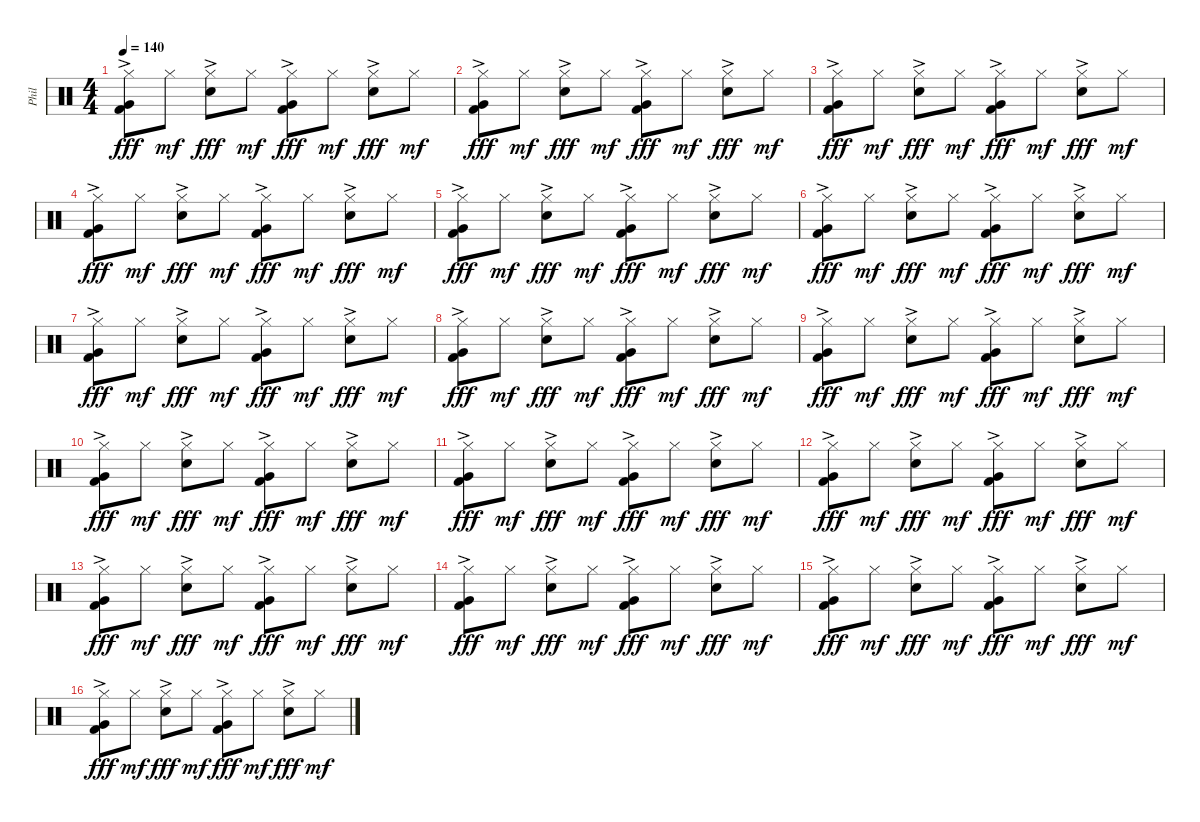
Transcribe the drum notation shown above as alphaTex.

\track ("Phil" "Phil") {instrument percussion}
\staff {score}
\articulation defaults
\ts (4 4)
\tempo 140
\clef neutral
\ks c
("Hi-Hat (closed)"{ac} "Very Low Tom (hit)"{ac} "Kick (hit) 2"{ac}).8{dy fff} "Hi-Hat (closed)".8{dy mf} ("Hi-Hat (closed)"{ac} "Snare (hit) 2").8{dy fff} "Hi-Hat (closed)".8{dy mf} ("Hi-Hat (closed)"{ac} "Very Low Tom (hit)"{ac} "Kick (hit) 2"{ac}).8{dy fff} "Hi-Hat (closed)".8{dy mf} ("Hi-Hat (closed)"{ac} "Snare (hit) 2").8{dy fff} "Hi-Hat (closed)".8{dy mf} |
("Hi-Hat (closed)"{ac} "Very Low Tom (hit)"{ac} "Kick (hit) 2"{ac}).8{dy fff} "Hi-Hat (closed)".8{dy mf} ("Hi-Hat (closed)"{ac} "Snare (hit) 2").8{dy fff} "Hi-Hat (closed)".8{dy mf} ("Hi-Hat (closed)"{ac} "Very Low Tom (hit)"{ac} "Kick (hit) 2"{ac}).8{dy fff} "Hi-Hat (closed)".8{dy mf} ("Hi-Hat (closed)"{ac} "Snare (hit) 2").8{dy fff} "Hi-Hat (closed)".8{dy mf} |
("Hi-Hat (closed)"{ac} "Very Low Tom (hit)"{ac} "Kick (hit) 2"{ac}).8{dy fff} "Hi-Hat (closed)".8{dy mf} ("Hi-Hat (closed)"{ac} "Snare (hit) 2").8{dy fff} "Hi-Hat (closed)".8{dy mf} ("Hi-Hat (closed)"{ac} "Very Low Tom (hit)"{ac} "Kick (hit) 2"{ac}).8{dy fff} "Hi-Hat (closed)".8{dy mf} ("Hi-Hat (closed)"{ac} "Snare (hit) 2").8{dy fff} "Hi-Hat (closed)".8{dy mf} |
("Hi-Hat (closed)"{ac} "Very Low Tom (hit)"{ac} "Kick (hit) 2"{ac}).8{dy fff} "Hi-Hat (closed)".8{dy mf} ("Hi-Hat (closed)"{ac} "Snare (hit) 2").8{dy fff} "Hi-Hat (closed)".8{dy mf} ("Hi-Hat (closed)"{ac} "Very Low Tom (hit)"{ac} "Kick (hit) 2"{ac}).8{dy fff} "Hi-Hat (closed)".8{dy mf} ("Hi-Hat (closed)"{ac} "Snare (hit) 2").8{dy fff} "Hi-Hat (closed)".8{dy mf} |
("Hi-Hat (closed)"{ac} "Very Low Tom (hit)"{ac} "Kick (hit) 2"{ac}).8{dy fff} "Hi-Hat (closed)".8{dy mf} ("Hi-Hat (closed)"{ac} "Snare (hit) 2").8{dy fff} "Hi-Hat (closed)".8{dy mf} ("Hi-Hat (closed)"{ac} "Very Low Tom (hit)"{ac} "Kick (hit) 2"{ac}).8{dy fff} "Hi-Hat (closed)".8{dy mf} ("Hi-Hat (closed)"{ac} "Snare (hit) 2").8{dy fff} "Hi-Hat (closed)".8{dy mf} |
("Hi-Hat (closed)"{ac} "Very Low Tom (hit)"{ac} "Kick (hit) 2"{ac}).8{dy fff} "Hi-Hat (closed)".8{dy mf} ("Hi-Hat (closed)"{ac} "Snare (hit) 2").8{dy fff} "Hi-Hat (closed)".8{dy mf} ("Hi-Hat (closed)"{ac} "Very Low Tom (hit)"{ac} "Kick (hit) 2"{ac}).8{dy fff} "Hi-Hat (closed)".8{dy mf} ("Hi-Hat (closed)"{ac} "Snare (hit) 2").8{dy fff} "Hi-Hat (closed)".8{dy mf} |
("Hi-Hat (closed)"{ac} "Very Low Tom (hit)"{ac} "Kick (hit) 2"{ac}).8{dy fff} "Hi-Hat (closed)".8{dy mf} ("Hi-Hat (closed)"{ac} "Snare (hit) 2").8{dy fff} "Hi-Hat (closed)".8{dy mf} ("Hi-Hat (closed)"{ac} "Very Low Tom (hit)"{ac} "Kick (hit) 2"{ac}).8{dy fff} "Hi-Hat (closed)".8{dy mf} ("Hi-Hat (closed)"{ac} "Snare (hit) 2").8{dy fff} "Hi-Hat (closed)".8{dy mf} |
("Hi-Hat (closed)"{ac} "Very Low Tom (hit)"{ac} "Kick (hit) 2"{ac}).8{dy fff} "Hi-Hat (closed)".8{dy mf} ("Hi-Hat (closed)"{ac} "Snare (hit) 2").8{dy fff} "Hi-Hat (closed)".8{dy mf} ("Hi-Hat (closed)"{ac} "Very Low Tom (hit)"{ac} "Kick (hit) 2"{ac}).8{dy fff} "Hi-Hat (closed)".8{dy mf} ("Hi-Hat (closed)"{ac} "Snare (hit) 2").8{dy fff} "Hi-Hat (closed)".8{dy mf} |
("Hi-Hat (closed)"{ac} "Very Low Tom (hit)"{ac} "Kick (hit) 2"{ac}).8{dy fff} "Hi-Hat (closed)".8{dy mf} ("Hi-Hat (closed)"{ac} "Snare (hit) 2").8{dy fff} "Hi-Hat (closed)".8{dy mf} ("Hi-Hat (closed)"{ac} "Very Low Tom (hit)"{ac} "Kick (hit) 2"{ac}).8{dy fff} "Hi-Hat (closed)".8{dy mf} ("Hi-Hat (closed)"{ac} "Snare (hit) 2").8{dy fff} "Hi-Hat (closed)".8{dy mf} |
("Hi-Hat (closed)"{ac} "Very Low Tom (hit)"{ac} "Kick (hit) 2"{ac}).8{dy fff} "Hi-Hat (closed)".8{dy mf} ("Hi-Hat (closed)"{ac} "Snare (hit) 2").8{dy fff} "Hi-Hat (closed)".8{dy mf} ("Hi-Hat (closed)"{ac} "Very Low Tom (hit)"{ac} "Kick (hit) 2"{ac}).8{dy fff} "Hi-Hat (closed)".8{dy mf} ("Hi-Hat (closed)"{ac} "Snare (hit) 2").8{dy fff} "Hi-Hat (closed)".8{dy mf} |
("Hi-Hat (closed)"{ac} "Very Low Tom (hit)"{ac} "Kick (hit) 2"{ac}).8{dy fff} "Hi-Hat (closed)".8{dy mf} ("Hi-Hat (closed)"{ac} "Snare (hit) 2").8{dy fff} "Hi-Hat (closed)".8{dy mf} ("Hi-Hat (closed)"{ac} "Very Low Tom (hit)"{ac} "Kick (hit) 2"{ac}).8{dy fff} "Hi-Hat (closed)".8{dy mf} ("Hi-Hat (closed)"{ac} "Snare (hit) 2").8{dy fff} "Hi-Hat (closed)".8{dy mf} |
("Hi-Hat (closed)"{ac} "Very Low Tom (hit)"{ac} "Kick (hit) 2"{ac}).8{dy fff} "Hi-Hat (closed)".8{dy mf} ("Hi-Hat (closed)"{ac} "Snare (hit) 2").8{dy fff} "Hi-Hat (closed)".8{dy mf} ("Hi-Hat (closed)"{ac} "Very Low Tom (hit)"{ac} "Kick (hit) 2"{ac}).8{dy fff} "Hi-Hat (closed)".8{dy mf} ("Hi-Hat (closed)"{ac} "Snare (hit) 2").8{dy fff} "Hi-Hat (closed)".8{dy mf} |
("Hi-Hat (closed)"{ac} "Very Low Tom (hit)"{ac} "Kick (hit) 2"{ac}).8{dy fff} "Hi-Hat (closed)".8{dy mf} ("Hi-Hat (closed)"{ac} "Snare (hit) 2").8{dy fff} "Hi-Hat (closed)".8{dy mf} ("Hi-Hat (closed)"{ac} "Very Low Tom (hit)"{ac} "Kick (hit) 2"{ac}).8{dy fff} "Hi-Hat (closed)".8{dy mf} ("Hi-Hat (closed)"{ac} "Snare (hit) 2").8{dy fff} "Hi-Hat (closed)".8{dy mf} |
("Hi-Hat (closed)"{ac} "Very Low Tom (hit)"{ac} "Kick (hit) 2"{ac}).8{dy fff} "Hi-Hat (closed)".8{dy mf} ("Hi-Hat (closed)"{ac} "Snare (hit) 2").8{dy fff} "Hi-Hat (closed)".8{dy mf} ("Hi-Hat (closed)"{ac} "Very Low Tom (hit)"{ac} "Kick (hit) 2"{ac}).8{dy fff} "Hi-Hat (closed)".8{dy mf} ("Hi-Hat (closed)"{ac} "Snare (hit) 2").8{dy fff} "Hi-Hat (closed)".8{dy mf} |
("Hi-Hat (closed)"{ac} "Very Low Tom (hit)"{ac} "Kick (hit) 2"{ac}).8{dy fff} "Hi-Hat (closed)".8{dy mf} ("Hi-Hat (closed)"{ac} "Snare (hit) 2").8{dy fff} "Hi-Hat (closed)".8{dy mf} ("Hi-Hat (closed)"{ac} "Very Low Tom (hit)"{ac} "Kick (hit) 2"{ac}).8{dy fff} "Hi-Hat (closed)".8{dy mf} ("Hi-Hat (closed)"{ac} "Snare (hit) 2").8{dy fff} "Hi-Hat (closed)".8{dy mf} |
("Hi-Hat (closed)"{ac} "Very Low Tom (hit)"{ac} "Kick (hit) 2"{ac}).8{dy fff} "Hi-Hat (closed)".8{dy mf} ("Hi-Hat (closed)"{ac} "Snare (hit) 2").8{dy fff} "Hi-Hat (closed)".8{dy mf} ("Hi-Hat (closed)"{ac} "Very Low Tom (hit)"{ac} "Kick (hit) 2"{ac}).8{dy fff} "Hi-Hat (closed)".8{dy mf} ("Hi-Hat (closed)"{ac} "Snare (hit) 2").8{dy fff} "Hi-Hat (closed)".8{dy mf}
